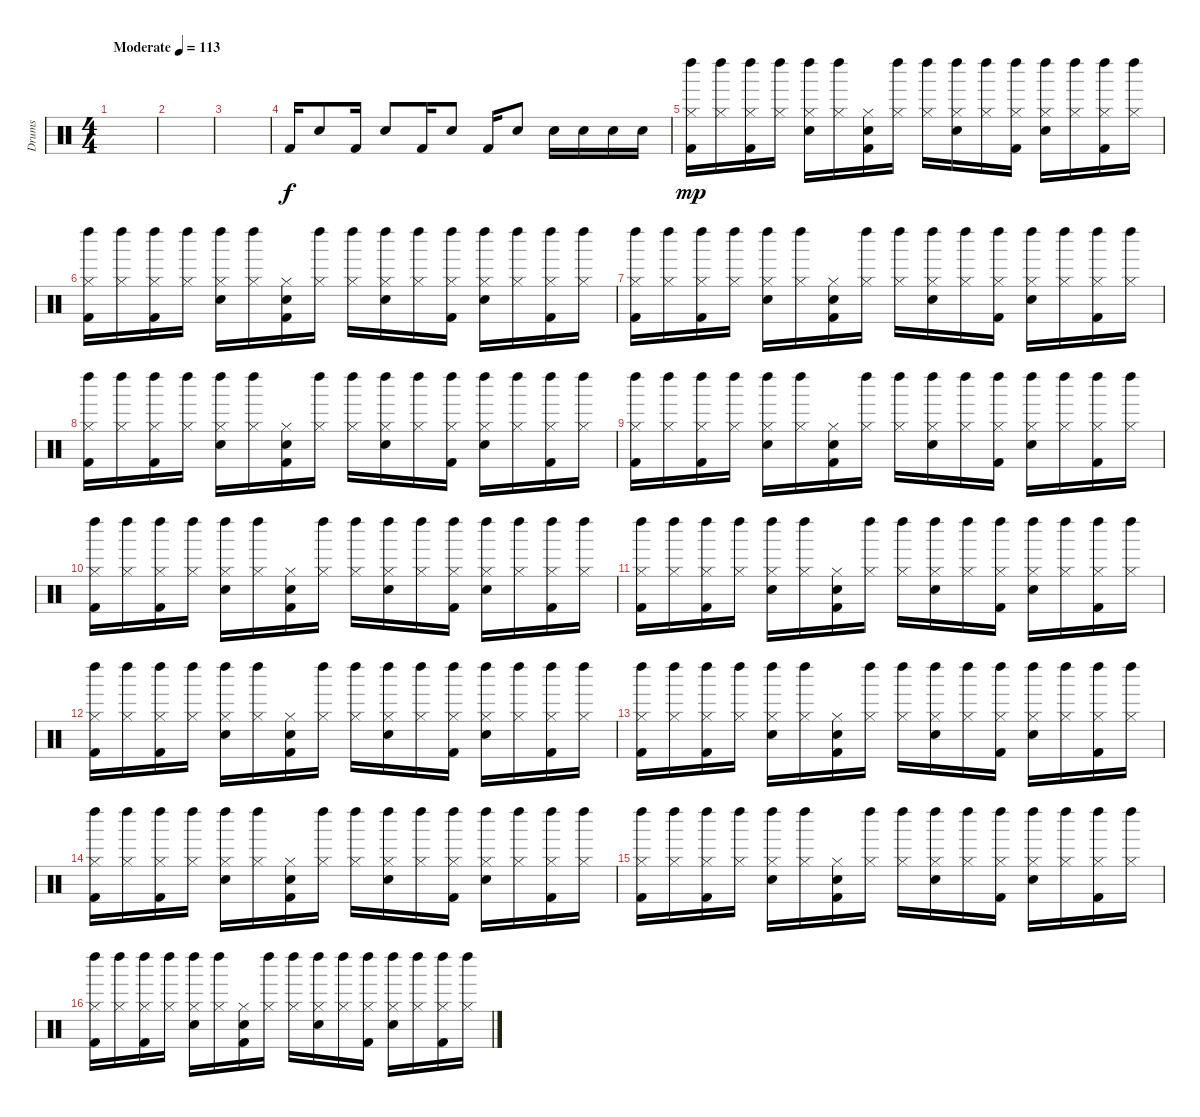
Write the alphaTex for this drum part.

\track ("Drums" "Drums") {instrument percussion}
\staff {score}
\articulation defaults
\ts (4 4)
\tempo (113 "Moderate")
\clef neutral
\ks c
|
|
|
"Kick (hit) 2".16 "Snare (hit) 2".8 "Kick (hit) 2".16 "Snare (hit) 2".8 "Kick (hit) 2".16 "Snare (hit) 2".8 "Kick (hit) 2".16 "Snare (hit) 2".8 "Snare (hit) 2".16 "Snare (hit) 2".16 "Snare (hit) 2".16 "Snare (hit) 2".16 |
("Hi-Hat (closed)" "Left Maraca (hit)" "Kick (hit) 2").16{dy mp} ("Hi-Hat (closed)" "Left Maraca (hit)").16 ("Hi-Hat (closed)" "Left Maraca (hit)" "Kick (hit) 2").16 ("Hi-Hat (closed)" "Left Maraca (hit)").16 ("Hi-Hat (closed)" "Left Maraca (hit)" "Snare (hit) 2").16 ("Hi-Hat (closed)" "Left Maraca (hit)").16 ("Hi-Hat (closed)" "Snare (hit)" "Kick (hit) 2").16 ("Hi-Hat (closed)" "Left Maraca (hit)").16 ("Hi-Hat (closed)" "Left Maraca (hit)").16 ("Hi-Hat (closed)" "Left Maraca (hit)" "Snare (hit) 2").16 ("Hi-Hat (closed)" "Left Maraca (hit)").16 ("Hi-Hat (closed)" "Left Maraca (hit)" "Kick (hit) 2").16 ("Hi-Hat (closed)" "Left Maraca (hit)" "Snare (hit) 2").16 ("Hi-Hat (closed)" "Left Maraca (hit)").16 ("Hi-Hat (closed)" "Left Maraca (hit)" "Kick (hit) 2").16 ("Hi-Hat (closed)" "Left Maraca (hit)").16 |
("Hi-Hat (closed)" "Left Maraca (hit)" "Kick (hit) 2").16 ("Hi-Hat (closed)" "Left Maraca (hit)").16 ("Hi-Hat (closed)" "Left Maraca (hit)" "Kick (hit) 2").16 ("Hi-Hat (closed)" "Left Maraca (hit)").16 ("Hi-Hat (closed)" "Left Maraca (hit)" "Snare (hit) 2").16 ("Hi-Hat (closed)" "Left Maraca (hit)").16 ("Hi-Hat (closed)" "Snare (hit)" "Kick (hit) 2").16 ("Hi-Hat (closed)" "Left Maraca (hit)").16 ("Hi-Hat (closed)" "Left Maraca (hit)").16 ("Hi-Hat (closed)" "Left Maraca (hit)" "Snare (hit) 2").16 ("Hi-Hat (closed)" "Left Maraca (hit)").16 ("Hi-Hat (closed)" "Left Maraca (hit)" "Kick (hit) 2").16 ("Hi-Hat (closed)" "Left Maraca (hit)" "Snare (hit) 2").16 ("Hi-Hat (closed)" "Left Maraca (hit)").16 ("Hi-Hat (closed)" "Left Maraca (hit)" "Kick (hit) 2").16 ("Hi-Hat (closed)" "Left Maraca (hit)").16 |
("Hi-Hat (closed)" "Left Maraca (hit)" "Kick (hit) 2").16 ("Hi-Hat (closed)" "Left Maraca (hit)").16 ("Hi-Hat (closed)" "Left Maraca (hit)" "Kick (hit) 2").16 ("Hi-Hat (closed)" "Left Maraca (hit)").16 ("Hi-Hat (closed)" "Left Maraca (hit)" "Snare (hit) 2").16 ("Hi-Hat (closed)" "Left Maraca (hit)").16 ("Hi-Hat (closed)" "Snare (hit)" "Kick (hit) 2").16 ("Hi-Hat (closed)" "Left Maraca (hit)").16 ("Hi-Hat (closed)" "Left Maraca (hit)").16 ("Hi-Hat (closed)" "Left Maraca (hit)" "Snare (hit) 2").16 ("Hi-Hat (closed)" "Left Maraca (hit)").16 ("Hi-Hat (closed)" "Left Maraca (hit)" "Kick (hit) 2").16 ("Hi-Hat (closed)" "Left Maraca (hit)" "Snare (hit) 2").16 ("Hi-Hat (closed)" "Left Maraca (hit)").16 ("Hi-Hat (closed)" "Left Maraca (hit)" "Kick (hit) 2").16 ("Hi-Hat (closed)" "Left Maraca (hit)").16 |
("Hi-Hat (closed)" "Left Maraca (hit)" "Kick (hit) 2").16 ("Hi-Hat (closed)" "Left Maraca (hit)").16 ("Hi-Hat (closed)" "Left Maraca (hit)" "Kick (hit) 2").16 ("Hi-Hat (closed)" "Left Maraca (hit)").16 ("Hi-Hat (closed)" "Left Maraca (hit)" "Snare (hit) 2").16 ("Hi-Hat (closed)" "Left Maraca (hit)").16 ("Hi-Hat (closed)" "Snare (hit)" "Kick (hit) 2").16 ("Hi-Hat (closed)" "Left Maraca (hit)").16 ("Hi-Hat (closed)" "Left Maraca (hit)").16 ("Hi-Hat (closed)" "Left Maraca (hit)" "Snare (hit) 2").16 ("Hi-Hat (closed)" "Left Maraca (hit)").16 ("Hi-Hat (closed)" "Left Maraca (hit)" "Kick (hit) 2").16 ("Hi-Hat (closed)" "Left Maraca (hit)" "Snare (hit) 2").16 ("Hi-Hat (closed)" "Left Maraca (hit)").16 ("Hi-Hat (closed)" "Left Maraca (hit)" "Kick (hit) 2").16 ("Hi-Hat (closed)" "Left Maraca (hit)").16 |
("Hi-Hat (closed)" "Left Maraca (hit)" "Kick (hit) 2").16 ("Hi-Hat (closed)" "Left Maraca (hit)").16 ("Hi-Hat (closed)" "Left Maraca (hit)" "Kick (hit) 2").16 ("Hi-Hat (closed)" "Left Maraca (hit)").16 ("Hi-Hat (closed)" "Left Maraca (hit)" "Snare (hit) 2").16 ("Hi-Hat (closed)" "Left Maraca (hit)").16 ("Hi-Hat (closed)" "Snare (hit)" "Kick (hit) 2").16 ("Hi-Hat (closed)" "Left Maraca (hit)").16 ("Hi-Hat (closed)" "Left Maraca (hit)").16 ("Hi-Hat (closed)" "Left Maraca (hit)" "Snare (hit) 2").16 ("Hi-Hat (closed)" "Left Maraca (hit)").16 ("Hi-Hat (closed)" "Left Maraca (hit)" "Kick (hit) 2").16 ("Hi-Hat (closed)" "Left Maraca (hit)" "Snare (hit) 2").16 ("Hi-Hat (closed)" "Left Maraca (hit)").16 ("Hi-Hat (closed)" "Left Maraca (hit)" "Kick (hit) 2").16 ("Hi-Hat (closed)" "Left Maraca (hit)").16 |
("Hi-Hat (closed)" "Left Maraca (hit)" "Kick (hit) 2").16 ("Hi-Hat (closed)" "Left Maraca (hit)").16 ("Hi-Hat (closed)" "Left Maraca (hit)" "Kick (hit) 2").16 ("Hi-Hat (closed)" "Left Maraca (hit)").16 ("Hi-Hat (closed)" "Left Maraca (hit)" "Snare (hit) 2").16 ("Hi-Hat (closed)" "Left Maraca (hit)").16 ("Hi-Hat (closed)" "Snare (hit)" "Kick (hit) 2").16 ("Hi-Hat (closed)" "Left Maraca (hit)").16 ("Hi-Hat (closed)" "Left Maraca (hit)").16 ("Hi-Hat (closed)" "Left Maraca (hit)" "Snare (hit) 2").16 ("Hi-Hat (closed)" "Left Maraca (hit)").16 ("Hi-Hat (closed)" "Left Maraca (hit)" "Kick (hit) 2").16 ("Hi-Hat (closed)" "Left Maraca (hit)" "Snare (hit) 2").16 ("Hi-Hat (closed)" "Left Maraca (hit)").16 ("Hi-Hat (closed)" "Left Maraca (hit)" "Kick (hit) 2").16 ("Hi-Hat (closed)" "Left Maraca (hit)").16 |
("Hi-Hat (closed)" "Left Maraca (hit)" "Kick (hit) 2").16 ("Hi-Hat (closed)" "Left Maraca (hit)").16 ("Hi-Hat (closed)" "Left Maraca (hit)" "Kick (hit) 2").16 ("Hi-Hat (closed)" "Left Maraca (hit)").16 ("Hi-Hat (closed)" "Left Maraca (hit)" "Snare (hit) 2").16 ("Hi-Hat (closed)" "Left Maraca (hit)").16 ("Hi-Hat (closed)" "Snare (hit)" "Kick (hit) 2").16 ("Hi-Hat (closed)" "Left Maraca (hit)").16 ("Hi-Hat (closed)" "Left Maraca (hit)").16 ("Hi-Hat (closed)" "Left Maraca (hit)" "Snare (hit) 2").16 ("Hi-Hat (closed)" "Left Maraca (hit)").16 ("Hi-Hat (closed)" "Left Maraca (hit)" "Kick (hit) 2").16 ("Hi-Hat (closed)" "Left Maraca (hit)" "Snare (hit) 2").16 ("Hi-Hat (closed)" "Left Maraca (hit)").16 ("Hi-Hat (closed)" "Left Maraca (hit)" "Kick (hit) 2").16 ("Hi-Hat (closed)" "Left Maraca (hit)").16 |
("Hi-Hat (closed)" "Left Maraca (hit)" "Kick (hit) 2").16 ("Hi-Hat (closed)" "Left Maraca (hit)").16 ("Hi-Hat (closed)" "Left Maraca (hit)" "Kick (hit) 2").16 ("Hi-Hat (closed)" "Left Maraca (hit)").16 ("Hi-Hat (closed)" "Left Maraca (hit)" "Snare (hit) 2").16 ("Hi-Hat (closed)" "Left Maraca (hit)").16 ("Hi-Hat (closed)" "Snare (hit)" "Kick (hit) 2").16 ("Hi-Hat (closed)" "Left Maraca (hit)").16 ("Hi-Hat (closed)" "Left Maraca (hit)").16 ("Hi-Hat (closed)" "Left Maraca (hit)" "Snare (hit) 2").16 ("Hi-Hat (closed)" "Left Maraca (hit)").16 ("Hi-Hat (closed)" "Left Maraca (hit)" "Kick (hit) 2").16 ("Hi-Hat (closed)" "Left Maraca (hit)" "Snare (hit) 2").16 ("Hi-Hat (closed)" "Left Maraca (hit)").16 ("Hi-Hat (closed)" "Left Maraca (hit)" "Kick (hit) 2").16 ("Hi-Hat (closed)" "Left Maraca (hit)").16 |
("Hi-Hat (closed)" "Left Maraca (hit)" "Kick (hit) 2").16 ("Hi-Hat (closed)" "Left Maraca (hit)").16 ("Hi-Hat (closed)" "Left Maraca (hit)" "Kick (hit) 2").16 ("Hi-Hat (closed)" "Left Maraca (hit)").16 ("Hi-Hat (closed)" "Left Maraca (hit)" "Snare (hit) 2").16 ("Hi-Hat (closed)" "Left Maraca (hit)").16 ("Hi-Hat (closed)" "Snare (hit)" "Kick (hit) 2").16 ("Hi-Hat (closed)" "Left Maraca (hit)").16 ("Hi-Hat (closed)" "Left Maraca (hit)").16 ("Hi-Hat (closed)" "Left Maraca (hit)" "Snare (hit) 2").16 ("Hi-Hat (closed)" "Left Maraca (hit)").16 ("Hi-Hat (closed)" "Left Maraca (hit)" "Kick (hit) 2").16 ("Hi-Hat (closed)" "Left Maraca (hit)" "Snare (hit) 2").16 ("Hi-Hat (closed)" "Left Maraca (hit)").16 ("Hi-Hat (closed)" "Left Maraca (hit)" "Kick (hit) 2").16 ("Hi-Hat (closed)" "Left Maraca (hit)").16 |
("Hi-Hat (closed)" "Left Maraca (hit)" "Kick (hit) 2").16 ("Hi-Hat (closed)" "Left Maraca (hit)").16 ("Hi-Hat (closed)" "Left Maraca (hit)" "Kick (hit) 2").16 ("Hi-Hat (closed)" "Left Maraca (hit)").16 ("Hi-Hat (closed)" "Left Maraca (hit)" "Snare (hit) 2").16 ("Hi-Hat (closed)" "Left Maraca (hit)").16 ("Hi-Hat (closed)" "Snare (hit)" "Kick (hit) 2").16 ("Hi-Hat (closed)" "Left Maraca (hit)").16 ("Hi-Hat (closed)" "Left Maraca (hit)").16 ("Hi-Hat (closed)" "Left Maraca (hit)" "Snare (hit) 2").16 ("Hi-Hat (closed)" "Left Maraca (hit)").16 ("Hi-Hat (closed)" "Left Maraca (hit)" "Kick (hit) 2").16 ("Hi-Hat (closed)" "Left Maraca (hit)" "Snare (hit) 2").16 ("Hi-Hat (closed)" "Left Maraca (hit)").16 ("Hi-Hat (closed)" "Left Maraca (hit)" "Kick (hit) 2").16 ("Hi-Hat (closed)" "Left Maraca (hit)").16 |
("Hi-Hat (closed)" "Left Maraca (hit)" "Kick (hit) 2").16 ("Hi-Hat (closed)" "Left Maraca (hit)").16 ("Hi-Hat (closed)" "Left Maraca (hit)" "Kick (hit) 2").16 ("Hi-Hat (closed)" "Left Maraca (hit)").16 ("Hi-Hat (closed)" "Left Maraca (hit)" "Snare (hit) 2").16 ("Hi-Hat (closed)" "Left Maraca (hit)").16 ("Hi-Hat (closed)" "Snare (hit)" "Kick (hit) 2").16 ("Hi-Hat (closed)" "Left Maraca (hit)").16 ("Hi-Hat (closed)" "Left Maraca (hit)").16 ("Hi-Hat (closed)" "Left Maraca (hit)" "Snare (hit) 2").16 ("Hi-Hat (closed)" "Left Maraca (hit)").16 ("Hi-Hat (closed)" "Left Maraca (hit)" "Kick (hit) 2").16 ("Hi-Hat (closed)" "Left Maraca (hit)" "Snare (hit) 2").16 ("Hi-Hat (closed)" "Left Maraca (hit)").16 ("Hi-Hat (closed)" "Left Maraca (hit)" "Kick (hit) 2").16 ("Hi-Hat (closed)" "Left Maraca (hit)").16 |
("Hi-Hat (closed)" "Left Maraca (hit)" "Kick (hit) 2").16 ("Hi-Hat (closed)" "Left Maraca (hit)").16 ("Hi-Hat (closed)" "Left Maraca (hit)" "Kick (hit) 2").16 ("Hi-Hat (closed)" "Left Maraca (hit)").16 ("Hi-Hat (closed)" "Left Maraca (hit)" "Snare (hit) 2").16 ("Hi-Hat (closed)" "Left Maraca (hit)").16 ("Hi-Hat (closed)" "Snare (hit)" "Kick (hit) 2").16 ("Hi-Hat (closed)" "Left Maraca (hit)").16 ("Hi-Hat (closed)" "Left Maraca (hit)").16 ("Hi-Hat (closed)" "Left Maraca (hit)" "Snare (hit) 2").16 ("Hi-Hat (closed)" "Left Maraca (hit)").16 ("Hi-Hat (closed)" "Left Maraca (hit)" "Kick (hit) 2").16 ("Hi-Hat (closed)" "Left Maraca (hit)" "Snare (hit) 2").16 ("Hi-Hat (closed)" "Left Maraca (hit)").16 ("Hi-Hat (closed)" "Left Maraca (hit)" "Kick (hit) 2").16 ("Hi-Hat (closed)" "Left Maraca (hit)").16
